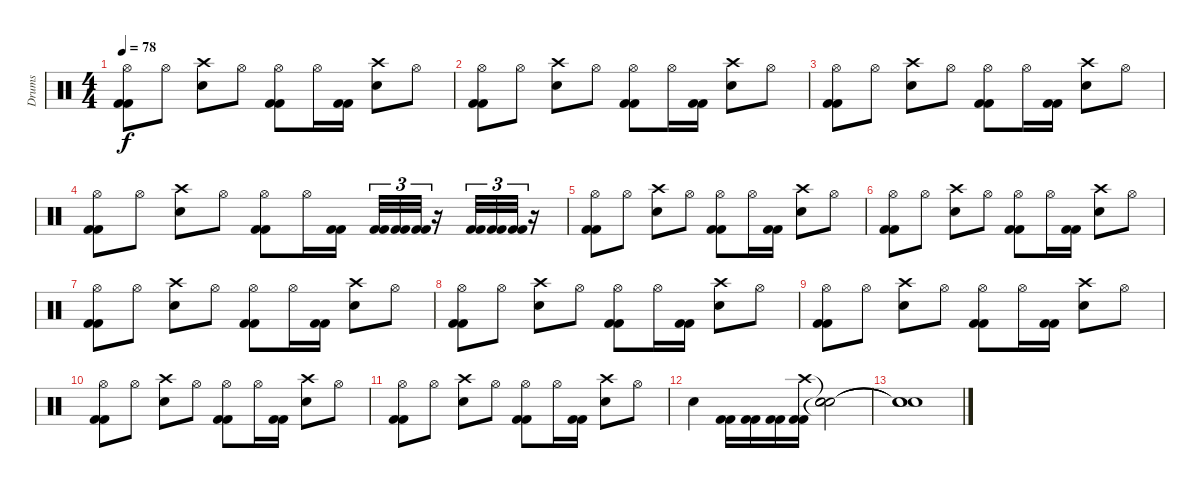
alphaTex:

\track ("Drums" "Drums") {instrument percussion}
\staff {score}
\articulation defaults
\ts (4 4)
\tempo 78
\clef neutral
\ks c
("Hi-Hat (open)" "Kick (hit) 2" "Kick (hit) 2").8{dy f} "Hi-Hat (open)".8 ("Crash high (hit)" "Snare (hit) 2").8 "Hi-Hat (open)".8 ("Hi-Hat (open)" "Kick (hit) 2" "Kick (hit) 2").8 "Hi-Hat (open)".16 ("Kick (hit) 2" "Kick (hit) 2").16 ("Crash high (hit)" "Snare (hit) 2").8 "Hi-Hat (open)".8 |
("Hi-Hat (open)" "Kick (hit) 2" "Kick (hit) 2").8 "Hi-Hat (open)".8 ("Crash high (hit)" "Snare (hit) 2").8 "Hi-Hat (open)".8 ("Hi-Hat (open)" "Kick (hit) 2" "Kick (hit) 2").8 "Hi-Hat (open)".16 ("Kick (hit) 2" "Kick (hit) 2").16 ("Crash high (hit)" "Snare (hit) 2").8 "Hi-Hat (open)".8 |
("Hi-Hat (open)" "Kick (hit) 2" "Kick (hit) 2").8 "Hi-Hat (open)".8 ("Crash high (hit)" "Snare (hit) 2").8 "Hi-Hat (open)".8 ("Hi-Hat (open)" "Kick (hit) 2" "Kick (hit) 2").8 "Hi-Hat (open)".16 ("Kick (hit) 2" "Kick (hit) 2").16 ("Crash high (hit)" "Snare (hit) 2").8 "Hi-Hat (open)".8 |
("Hi-Hat (open)" "Kick (hit) 2" "Kick (hit) 2").8 "Hi-Hat (open)".8 ("Crash high (hit)" "Snare (hit) 2").8 "Hi-Hat (open)".8 ("Hi-Hat (open)" "Kick (hit) 2" "Kick (hit) 2").8 "Hi-Hat (open)".16 ("Kick (hit) 2" "Kick (hit) 2").16 ("Kick (hit) 2" "Kick (hit) 2").32{tu (3 2)} ("Kick (hit) 2" "Kick (hit) 2").32{tu (3 2)} ("Kick (hit) 2" "Kick (hit) 2").32{tu (3 2)} r.16 ("Kick (hit) 2" "Kick (hit) 2").32{tu (3 2)} ("Kick (hit) 2" "Kick (hit) 2").32{tu (3 2)} ("Kick (hit) 2" "Kick (hit) 2").32{tu (3 2)} r.16 |
("Hi-Hat (open)" "Kick (hit) 2" "Kick (hit) 2").8 "Hi-Hat (open)".8 ("Crash high (hit)" "Snare (hit) 2").8 "Hi-Hat (open)".8 ("Hi-Hat (open)" "Kick (hit) 2" "Kick (hit) 2").8 "Hi-Hat (open)".16 ("Kick (hit) 2" "Kick (hit) 2").16 ("Crash high (hit)" "Snare (hit) 2").8 "Hi-Hat (open)".8 |
("Hi-Hat (open)" "Kick (hit) 2" "Kick (hit) 2").8 "Hi-Hat (open)".8 ("Crash high (hit)" "Snare (hit) 2").8 "Hi-Hat (open)".8 ("Hi-Hat (open)" "Kick (hit) 2" "Kick (hit) 2").8 "Hi-Hat (open)".16 ("Kick (hit) 2" "Kick (hit) 2").16 ("Crash high (hit)" "Snare (hit) 2").8 "Hi-Hat (open)".8 |
("Hi-Hat (open)" "Kick (hit) 2" "Kick (hit) 2").8 "Hi-Hat (open)".8 ("Crash high (hit)" "Snare (hit) 2").8 "Hi-Hat (open)".8 ("Hi-Hat (open)" "Kick (hit) 2" "Kick (hit) 2").8 "Hi-Hat (open)".16 ("Kick (hit) 2" "Kick (hit) 2").16 ("Crash high (hit)" "Snare (hit) 2").8 "Hi-Hat (open)".8 |
("Hi-Hat (open)" "Kick (hit) 2" "Kick (hit) 2").8 "Hi-Hat (open)".8 ("Crash high (hit)" "Snare (hit) 2").8 "Hi-Hat (open)".8 ("Hi-Hat (open)" "Kick (hit) 2" "Kick (hit) 2").8 "Hi-Hat (open)".16 ("Kick (hit) 2" "Kick (hit) 2").16 ("Crash high (hit)" "Snare (hit) 2").8 "Hi-Hat (open)".8 |
("Hi-Hat (open)" "Kick (hit) 2" "Kick (hit) 2").8 "Hi-Hat (open)".8 ("Crash high (hit)" "Snare (hit) 2").8 "Hi-Hat (open)".8 ("Hi-Hat (open)" "Kick (hit) 2" "Kick (hit) 2").8 "Hi-Hat (open)".16 ("Kick (hit) 2" "Kick (hit) 2").16 ("Crash high (hit)" "Snare (hit) 2").8 "Hi-Hat (open)".8 |
("Hi-Hat (open)" "Kick (hit) 2" "Kick (hit) 2").8 "Hi-Hat (open)".8 ("Crash high (hit)" "Snare (hit) 2").8 "Hi-Hat (open)".8 ("Hi-Hat (open)" "Kick (hit) 2" "Kick (hit) 2").8 "Hi-Hat (open)".16 ("Kick (hit) 2" "Kick (hit) 2").16 ("Crash high (hit)" "Snare (hit) 2").8 "Hi-Hat (open)".8 |
("Hi-Hat (open)" "Kick (hit) 2" "Kick (hit) 2").8 "Hi-Hat (open)".8 ("Crash high (hit)" "Snare (hit) 2").8 "Hi-Hat (open)".8 ("Hi-Hat (open)" "Kick (hit) 2" "Kick (hit) 2").8 "Hi-Hat (open)".16 ("Kick (hit) 2" "Kick (hit) 2").16 ("Crash high (hit)" "Snare (hit) 2").8 "Hi-Hat (open)".8 |
"Snare (hit) 2".4 ("Kick (hit) 2" "Kick (hit) 2").16 ("Kick (hit) 2" "Kick (hit) 2").16 ("Kick (hit) 2" "Kick (hit) 2").16 ("Crash high (hit)" "Kick (hit) 2" "Kick (hit) 2").16 ("Snare (hit)"{t} "Snare (hit)"{t} "Snare (hit)"{t}).2 |
("Snare (hit)"{t} "Snare (hit)"{t} "Snare (hit)"{t}).1
